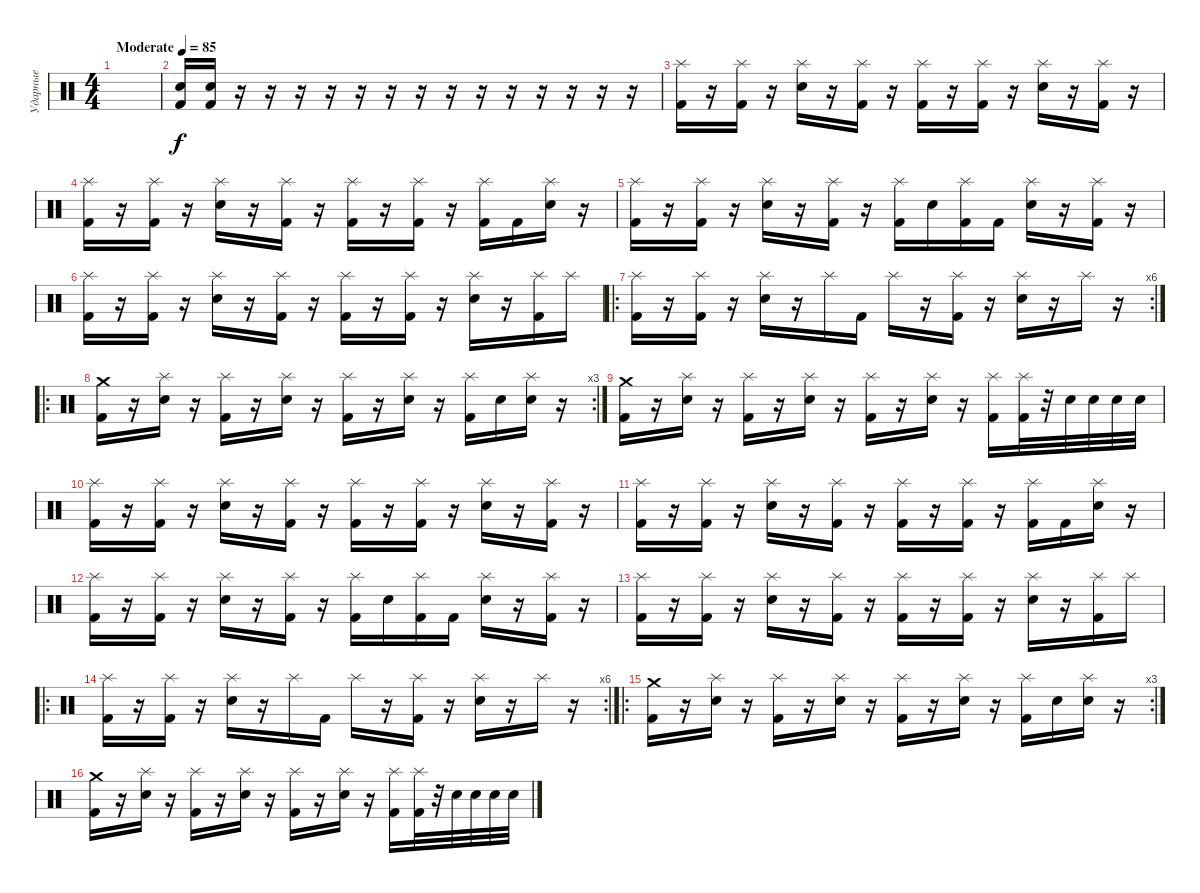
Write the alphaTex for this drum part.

\track ("Ударные" "Ударные") {instrument percussion}
\staff {score}
\articulation defaults
\ts (4 4)
\tempo (85 "Moderate")
\clef neutral
\ks c
|
("Snare (hit) 2" "Kick (hit) 2").16 ("Snare (hit) 2" "Kick (hit) 2").16 r.16 r.16 r.16 r.16 r.16 r.16 r.16 r.16 r.16 r.16 r.16 r.16 r.16 r.16 |
("Splash (hit)" "Kick (hit) 2").16 r.16 ("Splash (hit)" "Kick (hit) 2").16 r.16 ("Splash (hit)" "Snare (hit) 2").16 r.16 ("Splash (hit)" "Kick (hit) 2").16 r.16 ("Splash (hit)" "Kick (hit) 2").16 r.16 ("Splash (hit)" "Kick (hit) 2").16 r.16 ("Splash (hit)" "Snare (hit) 2").16 r.16 ("Splash (hit)" "Kick (hit) 2").16 r.16 |
("Splash (hit)" "Kick (hit) 2").16 r.16 ("Splash (hit)" "Kick (hit) 2").16 r.16 ("Splash (hit)" "Snare (hit) 2").16 r.16 ("Splash (hit)" "Kick (hit) 2").16 r.16 ("Splash (hit)" "Kick (hit) 2").16 r.16 ("Splash (hit)" "Kick (hit) 2").16 r.16 ("Splash (hit)" "Kick (hit) 2").16 "Kick (hit) 2".16 ("Splash (hit)" "Snare (hit) 2").16 r.16 |
("Splash (hit)" "Kick (hit) 2").16 r.16 ("Splash (hit)" "Kick (hit) 2").16 r.16 ("Splash (hit)" "Snare (hit) 2").16 r.16 ("Splash (hit)" "Kick (hit) 2").16 r.16 ("Splash (hit)" "Kick (hit) 2").16 "Snare (hit) 2".16 ("Splash (hit)" "Kick (hit) 2").16 "Kick (hit) 2".16 ("Splash (hit)" "Snare (hit) 2").16 r.16 ("Splash (hit)" "Kick (hit) 2").16 r.16 |
("Splash (hit)" "Kick (hit) 2").16 r.16 ("Splash (hit)" "Kick (hit) 2").16 r.16 ("Splash (hit)" "Snare (hit) 2").16 r.16 ("Splash (hit)" "Kick (hit) 2").16 r.16 ("Splash (hit)" "Kick (hit) 2").16 r.16 ("Splash (hit)" "Kick (hit) 2").16 r.16 ("Splash (hit)" "Snare (hit) 2").16 r.16 ("Splash (hit)" "Kick (hit) 2").16 "Splash (hit)".16 |
\ro
\rc 6
("Splash (hit)" "Kick (hit) 2").16 r.16 ("Splash (hit)" "Kick (hit) 2").16 r.16 ("Splash (hit)" "Snare (hit) 2").16 r.16 "Splash (hit)".16 "Kick (hit) 2".16 "Splash (hit)".16 r.16 ("Splash (hit)" "Kick (hit) 2").16 r.16 ("Splash (hit)" "Snare (hit) 2").16 r.16 "Splash (hit)".16 r.16 |
\ro
\rc 3
("Crash medium (hit)" "Kick (hit) 2").16 r.16 ("Splash (hit)" "Snare (hit) 2").16 r.16 ("Splash (hit)" "Kick (hit) 2").16 r.16 ("Splash (hit)" "Snare (hit) 2").16 r.16 ("Splash (hit)" "Kick (hit) 2").16 r.16 ("Splash (hit)" "Snare (hit) 2").16 r.16 ("Splash (hit)" "Kick (hit) 2").16 "Snare (hit) 2".16 ("Splash (hit)" "Snare (hit) 2").16 r.16 |
("Crash medium (hit)" "Kick (hit) 2").16 r.16 ("Splash (hit)" "Snare (hit) 2").16 r.16 ("Splash (hit)" "Kick (hit) 2").16 r.16 ("Splash (hit)" "Snare (hit) 2").16 r.16 ("Splash (hit)" "Kick (hit) 2").16 r.16 ("Splash (hit)" "Snare (hit) 2").16 r.16 ("Splash (hit)" "Kick (hit) 2").16 ("Splash (hit)" "Kick (hit) 2").32 r.32 "Snare (hit) 2".32 "Snare (hit) 2".32 "Snare (hit) 2".32 "Snare (hit) 2".32 |
("Splash (hit)" "Kick (hit) 2").16 r.16 ("Splash (hit)" "Kick (hit) 2").16 r.16 ("Splash (hit)" "Snare (hit) 2").16 r.16 ("Splash (hit)" "Kick (hit) 2").16 r.16 ("Splash (hit)" "Kick (hit) 2").16 r.16 ("Splash (hit)" "Kick (hit) 2").16 r.16 ("Splash (hit)" "Snare (hit) 2").16 r.16 ("Splash (hit)" "Kick (hit) 2").16 r.16 |
("Splash (hit)" "Kick (hit) 2").16 r.16 ("Splash (hit)" "Kick (hit) 2").16 r.16 ("Splash (hit)" "Snare (hit) 2").16 r.16 ("Splash (hit)" "Kick (hit) 2").16 r.16 ("Splash (hit)" "Kick (hit) 2").16 r.16 ("Splash (hit)" "Kick (hit) 2").16 r.16 ("Splash (hit)" "Kick (hit) 2").16 "Kick (hit) 2".16 ("Splash (hit)" "Snare (hit) 2").16 r.16 |
("Splash (hit)" "Kick (hit) 2").16 r.16 ("Splash (hit)" "Kick (hit) 2").16 r.16 ("Splash (hit)" "Snare (hit) 2").16 r.16 ("Splash (hit)" "Kick (hit) 2").16 r.16 ("Splash (hit)" "Kick (hit) 2").16 "Snare (hit) 2".16 ("Splash (hit)" "Kick (hit) 2").16 "Kick (hit) 2".16 ("Splash (hit)" "Snare (hit) 2").16 r.16 ("Splash (hit)" "Kick (hit) 2").16 r.16 |
("Splash (hit)" "Kick (hit) 2").16 r.16 ("Splash (hit)" "Kick (hit) 2").16 r.16 ("Splash (hit)" "Snare (hit) 2").16 r.16 ("Splash (hit)" "Kick (hit) 2").16 r.16 ("Splash (hit)" "Kick (hit) 2").16 r.16 ("Splash (hit)" "Kick (hit) 2").16 r.16 ("Splash (hit)" "Snare (hit) 2").16 r.16 ("Splash (hit)" "Kick (hit) 2").16 "Splash (hit)".16 |
\ro
\rc 6
("Splash (hit)" "Kick (hit) 2").16 r.16 ("Splash (hit)" "Kick (hit) 2").16 r.16 ("Splash (hit)" "Snare (hit) 2").16 r.16 "Splash (hit)".16 "Kick (hit) 2".16 "Splash (hit)".16 r.16 ("Splash (hit)" "Kick (hit) 2").16 r.16 ("Splash (hit)" "Snare (hit) 2").16 r.16 "Splash (hit)".16 r.16 |
\ro
\rc 3
("Crash medium (hit)" "Kick (hit) 2").16 r.16 ("Splash (hit)" "Snare (hit) 2").16 r.16 ("Splash (hit)" "Kick (hit) 2").16 r.16 ("Splash (hit)" "Snare (hit) 2").16 r.16 ("Splash (hit)" "Kick (hit) 2").16 r.16 ("Splash (hit)" "Snare (hit) 2").16 r.16 ("Splash (hit)" "Kick (hit) 2").16 "Snare (hit) 2".16 ("Splash (hit)" "Snare (hit) 2").16 r.16 |
("Crash medium (hit)" "Kick (hit) 2").16 r.16 ("Splash (hit)" "Snare (hit) 2").16 r.16 ("Splash (hit)" "Kick (hit) 2").16 r.16 ("Splash (hit)" "Snare (hit) 2").16 r.16 ("Splash (hit)" "Kick (hit) 2").16 r.16 ("Splash (hit)" "Snare (hit) 2").16 r.16 ("Splash (hit)" "Kick (hit) 2").16 ("Splash (hit)" "Kick (hit) 2").32 r.32 "Snare (hit) 2".32 "Snare (hit) 2".32 "Snare (hit) 2".32 "Snare (hit) 2".32
